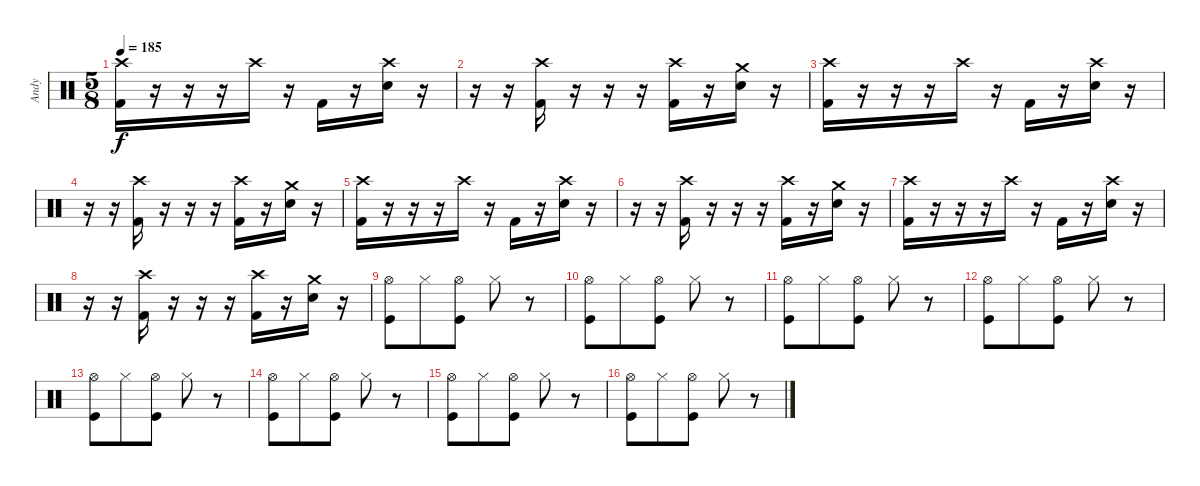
\track ("Andy" "Andy") {instrument percussion}
\staff {score}
\articulation defaults
\ts (5 8)
\tempo 185
\clef neutral
\ks c
("Crash high (hit)" "Kick (hit) 2").16{dy f} r.16 r.16 r.16 "Crash high (hit)".16 r.16 "Kick (hit) 2".16 r.16 ("Crash high (hit)" "Electric Snare (hit)").16 r.16 |
r.16 r.16 ("Crash high (hit)" "Kick (hit) 2").16 r.16 r.16 r.16 ("Crash high (hit)" "Kick (hit) 2").16 r.16 ("Crash medium (hit)" "Electric Snare (hit)").16 r.16 |
("Crash high (hit)" "Kick (hit) 2").16 r.16 r.16 r.16 "Crash high (hit)".16 r.16 "Kick (hit) 2".16 r.16 ("Crash high (hit)" "Electric Snare (hit)").16 r.16 |
r.16 r.16 ("Crash high (hit)" "Kick (hit) 2").16 r.16 r.16 r.16 ("Crash high (hit)" "Kick (hit) 2").16 r.16 ("Crash medium (hit)" "Electric Snare (hit)").16 r.16 |
("Crash high (hit)" "Kick (hit) 2").16 r.16 r.16 r.16 "Crash high (hit)".16 r.16 "Kick (hit) 2".16 r.16 ("Crash high (hit)" "Electric Snare (hit)").16 r.16 |
r.16 r.16 ("Crash high (hit)" "Kick (hit) 2").16 r.16 r.16 r.16 ("Crash high (hit)" "Kick (hit) 2").16 r.16 ("Crash medium (hit)" "Electric Snare (hit)").16 r.16 |
("Crash high (hit)" "Kick (hit) 2").16 r.16 r.16 r.16 "Crash high (hit)".16 r.16 "Kick (hit) 2".16 r.16 ("Crash high (hit)" "Electric Snare (hit)").16 r.16 |
r.16 r.16 ("Crash high (hit)" "Kick (hit) 2").16 r.16 r.16 r.16 ("Crash high (hit)" "Kick (hit) 2").16 r.16 ("Crash medium (hit)" "Electric Snare (hit)").16 r.16 |
("Kick (hit)" "Hi-Hat (open)").8 "Hi-Hat (closed)".8 ("Kick (hit)" "Hi-Hat (open)").8 "Hi-Hat (closed)".8 r.8 |
("Kick (hit)" "Hi-Hat (open)").8 "Hi-Hat (closed)".8 ("Kick (hit)" "Hi-Hat (open)").8 "Hi-Hat (closed)".8 r.8 |
("Kick (hit)" "Hi-Hat (open)").8 "Hi-Hat (closed)".8 ("Kick (hit)" "Hi-Hat (open)").8 "Hi-Hat (closed)".8 r.8 |
("Kick (hit)" "Hi-Hat (open)").8 "Hi-Hat (closed)".8 ("Kick (hit)" "Hi-Hat (open)").8 "Hi-Hat (closed)".8 r.8 |
("Kick (hit)" "Hi-Hat (open)").8 "Hi-Hat (closed)".8 ("Kick (hit)" "Hi-Hat (open)").8 "Hi-Hat (closed)".8 r.8 |
("Kick (hit)" "Hi-Hat (open)").8 "Hi-Hat (closed)".8 ("Kick (hit)" "Hi-Hat (open)").8 "Hi-Hat (closed)".8 r.8 |
("Kick (hit)" "Hi-Hat (open)").8 "Hi-Hat (closed)".8 ("Kick (hit)" "Hi-Hat (open)").8 "Hi-Hat (closed)".8 r.8 |
("Kick (hit)" "Hi-Hat (open)").8 "Hi-Hat (closed)".8 ("Kick (hit)" "Hi-Hat (open)").8 "Hi-Hat (closed)".8 r.8
